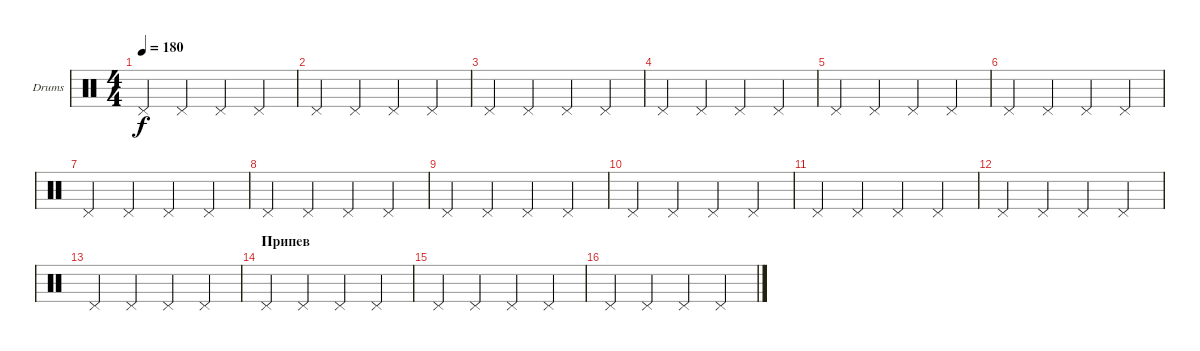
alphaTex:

\defaultSystemsLayout 4
\bracketExtendMode groupsimilarinstruments
\firstSystemTrackNameOrientation horizontal
\otherSystemsTrackNameOrientation horizontal
\track ("Drumkit" "Drums") {instrument percussion}
\staff {score}
\articulation defaults
\ts (4 4)
\tempo 180
\clef neutral
\ks c "Pedal Hi-Hat (hit)".4{dy f} "Pedal Hi-Hat (hit)".4 "Pedal Hi-Hat (hit)".4 "Pedal Hi-Hat (hit)".4
|
"Pedal Hi-Hat (hit)".4 "Pedal Hi-Hat (hit)".4 "Pedal Hi-Hat (hit)".4 "Pedal Hi-Hat (hit)".4 |
"Pedal Hi-Hat (hit)".4 "Pedal Hi-Hat (hit)".4 "Pedal Hi-Hat (hit)".4 "Pedal Hi-Hat (hit)".4 |
"Pedal Hi-Hat (hit)".4 "Pedal Hi-Hat (hit)".4 "Pedal Hi-Hat (hit)".4 "Pedal Hi-Hat (hit)".4 |
"Pedal Hi-Hat (hit)".4 "Pedal Hi-Hat (hit)".4 "Pedal Hi-Hat (hit)".4 "Pedal Hi-Hat (hit)".4 |
"Pedal Hi-Hat (hit)".4 "Pedal Hi-Hat (hit)".4 "Pedal Hi-Hat (hit)".4 "Pedal Hi-Hat (hit)".4 |
"Pedal Hi-Hat (hit)".4 "Pedal Hi-Hat (hit)".4 "Pedal Hi-Hat (hit)".4 "Pedal Hi-Hat (hit)".4 |
"Pedal Hi-Hat (hit)".4 "Pedal Hi-Hat (hit)".4 "Pedal Hi-Hat (hit)".4 "Pedal Hi-Hat (hit)".4 |
"Pedal Hi-Hat (hit)".4 "Pedal Hi-Hat (hit)".4 "Pedal Hi-Hat (hit)".4 "Pedal Hi-Hat (hit)".4 |
"Pedal Hi-Hat (hit)".4 "Pedal Hi-Hat (hit)".4 "Pedal Hi-Hat (hit)".4 "Pedal Hi-Hat (hit)".4 |
"Pedal Hi-Hat (hit)".4 "Pedal Hi-Hat (hit)".4 "Pedal Hi-Hat (hit)".4 "Pedal Hi-Hat (hit)".4 |
"Pedal Hi-Hat (hit)".4 "Pedal Hi-Hat (hit)".4 "Pedal Hi-Hat (hit)".4 "Pedal Hi-Hat (hit)".4 |
"Pedal Hi-Hat (hit)".4 "Pedal Hi-Hat (hit)".4 "Pedal Hi-Hat (hit)".4 "Pedal Hi-Hat (hit)".4 |
\section ("" "Припев")
"Pedal Hi-Hat (hit)".4 "Pedal Hi-Hat (hit)".4 "Pedal Hi-Hat (hit)".4 "Pedal Hi-Hat (hit)".4 |
"Pedal Hi-Hat (hit)".4 "Pedal Hi-Hat (hit)".4 "Pedal Hi-Hat (hit)".4 "Pedal Hi-Hat (hit)".4 |
"Pedal Hi-Hat (hit)".4 "Pedal Hi-Hat (hit)".4 "Pedal Hi-Hat (hit)".4 "Pedal Hi-Hat (hit)".4
